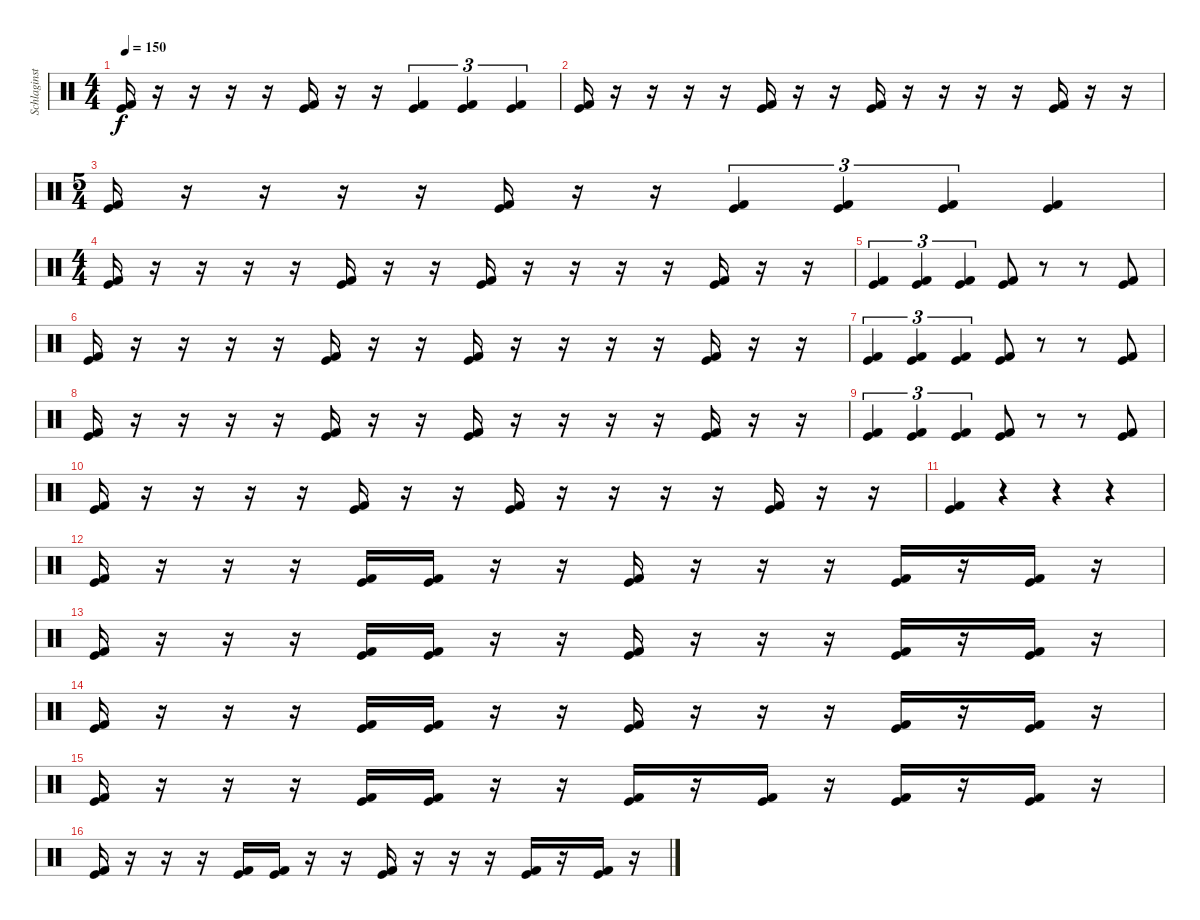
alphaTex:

\track ("Schlaginstrumente - Auswahl" "Schlaginst") {instrument percussion}
\staff {score}
\articulation defaults
\ts (4 4)
\tempo 150
\clef neutral
\ks c
("Kick (hit)" "Kick (hit) 2").16{dy f} r.16 r.16 r.16 r.16 ("Kick (hit)" "Kick (hit) 2").16 r.16 r.16 ("Kick (hit)" "Kick (hit) 2").4{tu (3 2)} ("Kick (hit)" "Kick (hit) 2").4{tu (3 2)} ("Kick (hit)" "Kick (hit) 2").4{tu (3 2)} |
("Kick (hit)" "Kick (hit) 2").16 r.16 r.16 r.16 r.16 ("Kick (hit)" "Kick (hit) 2").16 r.16 r.16 ("Kick (hit)" "Kick (hit) 2").16 r.16 r.16 r.16 r.16 ("Kick (hit)" "Kick (hit) 2").16 r.16 r.16 |
\ts (5 4)
("Kick (hit)" "Kick (hit) 2").16 r.16 r.16 r.16 r.16 ("Kick (hit)" "Kick (hit) 2").16 r.16 r.16 ("Kick (hit)" "Kick (hit) 2").4{tu (3 2)} ("Kick (hit)" "Kick (hit) 2").4{tu (3 2)} ("Kick (hit)" "Kick (hit) 2").4{tu (3 2)} ("Kick (hit)" "Kick (hit) 2").4 |
\ts (4 4)
("Kick (hit)" "Kick (hit) 2").16 r.16 r.16 r.16 r.16 ("Kick (hit)" "Kick (hit) 2").16 r.16 r.16 ("Kick (hit)" "Kick (hit) 2").16 r.16 r.16 r.16 r.16 ("Kick (hit)" "Kick (hit) 2").16 r.16 r.16 |
("Kick (hit)" "Kick (hit) 2").4{tu (3 2)} ("Kick (hit)" "Kick (hit) 2").4{tu (3 2)} ("Kick (hit)" "Kick (hit) 2").4{tu (3 2)} ("Kick (hit)" "Kick (hit) 2").8 r.8 r.8 ("Kick (hit)" "Kick (hit) 2").8 |
("Kick (hit)" "Kick (hit) 2").16 r.16 r.16 r.16 r.16 ("Kick (hit)" "Kick (hit) 2").16 r.16 r.16 ("Kick (hit)" "Kick (hit) 2").16 r.16 r.16 r.16 r.16 ("Kick (hit)" "Kick (hit) 2").16 r.16 r.16 |
("Kick (hit)" "Kick (hit) 2").4{tu (3 2)} ("Kick (hit)" "Kick (hit) 2").4{tu (3 2)} ("Kick (hit)" "Kick (hit) 2").4{tu (3 2)} ("Kick (hit)" "Kick (hit) 2").8 r.8 r.8 ("Kick (hit)" "Kick (hit) 2").8 |
("Kick (hit)" "Kick (hit) 2").16 r.16 r.16 r.16 r.16 ("Kick (hit)" "Kick (hit) 2").16 r.16 r.16 ("Kick (hit)" "Kick (hit) 2").16 r.16 r.16 r.16 r.16 ("Kick (hit)" "Kick (hit) 2").16 r.16 r.16 |
("Kick (hit)" "Kick (hit) 2").4{tu (3 2)} ("Kick (hit)" "Kick (hit) 2").4{tu (3 2)} ("Kick (hit)" "Kick (hit) 2").4{tu (3 2)} ("Kick (hit)" "Kick (hit) 2").8 r.8 r.8 ("Kick (hit)" "Kick (hit) 2").8 |
("Kick (hit)" "Kick (hit) 2").16 r.16 r.16 r.16 r.16 ("Kick (hit)" "Kick (hit) 2").16 r.16 r.16 ("Kick (hit)" "Kick (hit) 2").16 r.16 r.16 r.16 r.16 ("Kick (hit)" "Kick (hit) 2").16 r.16 r.16 |
("Kick (hit)" "Kick (hit) 2").4 r.4 r.4 r.4 |
("Kick (hit)" "Kick (hit) 2").16 r.16 r.16 r.16 ("Kick (hit)" "Kick (hit) 2").16 ("Kick (hit)" "Kick (hit) 2").16 r.16 r.16 ("Kick (hit)" "Kick (hit) 2").16 r.16 r.16 r.16 ("Kick (hit)" "Kick (hit) 2").16 r.16 ("Kick (hit)" "Kick (hit) 2").16 r.16 |
("Kick (hit)" "Kick (hit) 2").16 r.16 r.16 r.16 ("Kick (hit)" "Kick (hit) 2").16 ("Kick (hit)" "Kick (hit) 2").16 r.16 r.16 ("Kick (hit)" "Kick (hit) 2").16 r.16 r.16 r.16 ("Kick (hit)" "Kick (hit) 2").16 r.16 ("Kick (hit)" "Kick (hit) 2").16 r.16 |
("Kick (hit)" "Kick (hit) 2").16 r.16 r.16 r.16 ("Kick (hit)" "Kick (hit) 2").16 ("Kick (hit)" "Kick (hit) 2").16 r.16 r.16 ("Kick (hit)" "Kick (hit) 2").16 r.16 r.16 r.16 ("Kick (hit)" "Kick (hit) 2").16 r.16 ("Kick (hit)" "Kick (hit) 2").16 r.16 |
("Kick (hit)" "Kick (hit) 2").16 r.16 r.16 r.16 ("Kick (hit)" "Kick (hit) 2").16 ("Kick (hit)" "Kick (hit) 2").16 r.16 r.16 ("Kick (hit)" "Kick (hit) 2").16 r.16 ("Kick (hit)" "Kick (hit) 2").16 r.16 ("Kick (hit)" "Kick (hit) 2").16 r.16 ("Kick (hit)" "Kick (hit) 2").16 r.16 |
("Kick (hit)" "Kick (hit) 2").16 r.16 r.16 r.16 ("Kick (hit)" "Kick (hit) 2").16 ("Kick (hit)" "Kick (hit) 2").16 r.16 r.16 ("Kick (hit)" "Kick (hit) 2").16 r.16 r.16 r.16 ("Kick (hit)" "Kick (hit) 2").16 r.16 ("Kick (hit)" "Kick (hit) 2").16 r.16
